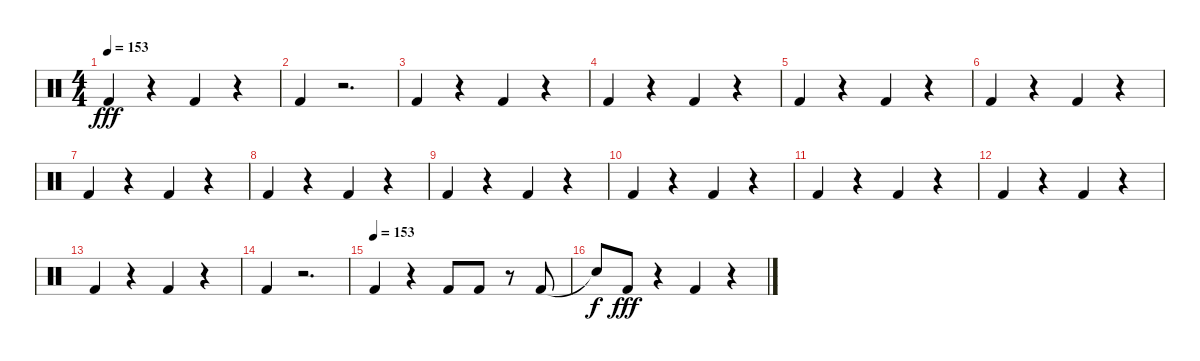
\track "" {instrument percussion}
\staff {score}
\articulation defaults
\ts (4 4)
\tempo 153
\clef neutral
\ks c "Kick (hit) 2".4{dy fff}
r.4 "Kick (hit) 2".4 r.4 |
"Kick (hit) 2".4 r.2{d} |
"Kick (hit) 2".4 r.4 "Kick (hit) 2".4 r.4 |
"Kick (hit) 2".4 r.4 "Kick (hit) 2".4 r.4 |
"Kick (hit) 2".4 r.4 "Kick (hit) 2".4 r.4 |
"Kick (hit) 2".4 r.4 "Kick (hit) 2".4 r.4 |
"Kick (hit) 2".4 r.4 "Kick (hit) 2".4 r.4 |
"Kick (hit) 2".4 r.4 "Kick (hit) 2".4 r.4 |
"Kick (hit) 2".4 r.4 "Kick (hit) 2".4 r.4 |
"Kick (hit) 2".4 r.4 "Kick (hit) 2".4 r.4 |
"Kick (hit) 2".4 r.4 "Kick (hit) 2".4 r.4 |
"Kick (hit) 2".4 r.4 "Kick (hit) 2".4 r.4 |
"Kick (hit) 2".4 r.4 "Kick (hit) 2".4 r.4 |
"Kick (hit) 2".4 r.2{d} |
\tempo (153)
"Kick (hit) 2".4 r.4 "Kick (hit) 2".8 "Kick (hit) 2".8 r.8 "Kick (hit) 2".8 |
"Snare (hit)"{t}.8{dy f} "Kick (hit) 2".8{dy fff} r.4 "Kick (hit) 2".4 r.4
